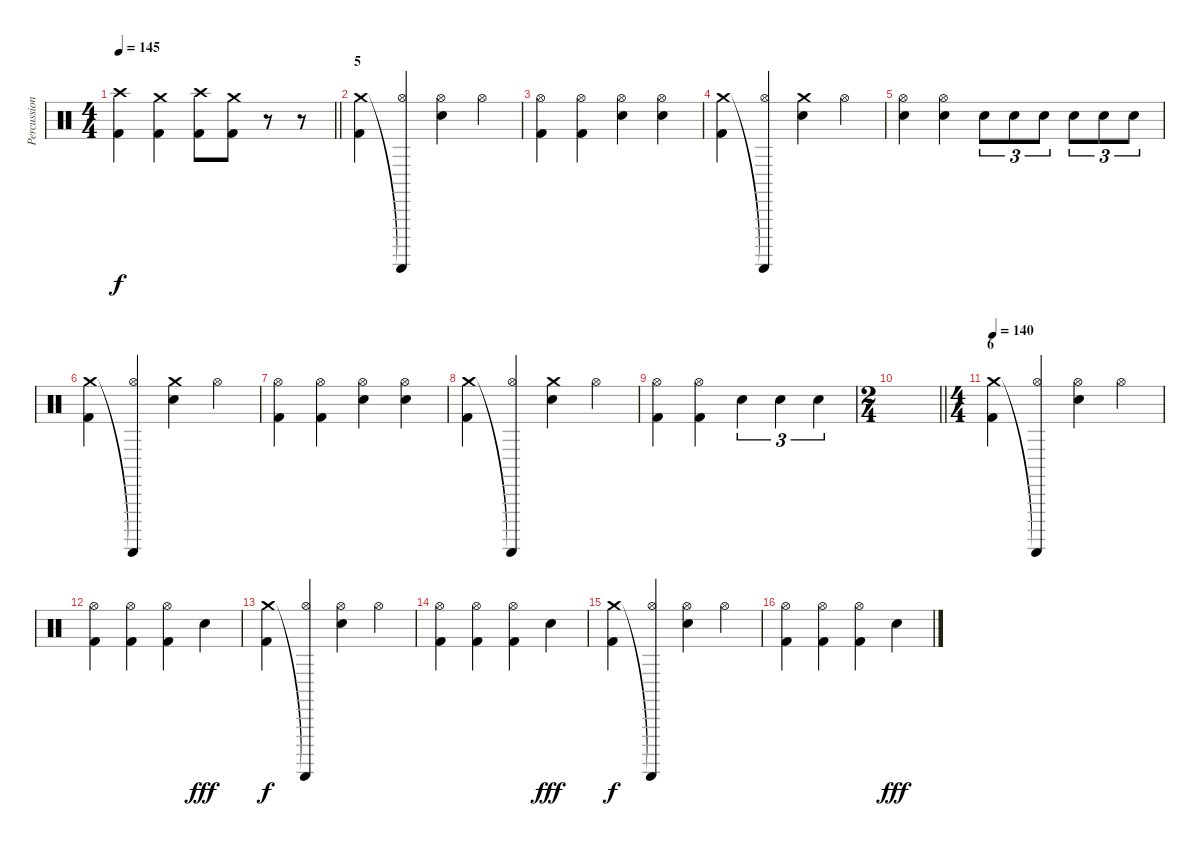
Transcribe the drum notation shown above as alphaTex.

\track ("Percussion" "Percussion") {instrument percussion}
\staff {score}
\articulation defaults
\ts (4 4)
\tempo 145
\clef neutral
\barLineRight lightlight
\ks c
("Kick (hit) 2" "Crash high (hit)").4{dy f} ("Kick (hit) 2" "Crash medium (hit)").4 ("Kick (hit) 2" "Crash high (hit)").8 ("Kick (hit) 2" "Crash medium (hit)").8 r.8 r.8 |
\section ("" "5 ")
("Crash medium (hit)" "Kick (hit) 2").4 ("Guiro (scrap-return)"{t} "Hi-Hat (open)").4 ("Hi-Hat (open)" "Electric Snare (hit)").4 "Hi-Hat (open)".4 |
("Hi-Hat (open)" "Kick (hit) 2").4 ("Hi-Hat (open)" "Kick (hit) 2").4 ("Hi-Hat (open)" "Electric Snare (hit)").4 ("Hi-Hat (open)" "Electric Snare (hit)").4 |
("Crash medium (hit)" "Kick (hit) 2").4 ("Guiro (scrap-return)"{t} "Hi-Hat (open)").4 ("Crash medium (hit)" "Electric Snare (hit)").4 "Hi-Hat (open)".4 |
("Hi-Hat (open)" "Electric Snare (hit)").4 ("Hi-Hat (open)" "Electric Snare (hit)").4 "Electric Snare (hit)".8{tu (3 2)} "Electric Snare (hit)".8{tu (3 2)} "Electric Snare (hit)".8{tu (3 2)} "Electric Snare (hit)".8{tu (3 2)} "Electric Snare (hit)".8{tu (3 2)} "Electric Snare (hit)".8{tu (3 2)} |
("Crash medium (hit)" "Kick (hit) 2").4 ("Guiro (scrap-return)"{t} "Hi-Hat (open)").4 ("Crash medium (hit)" "Electric Snare (hit)").4 "Hi-Hat (open)".4 |
("Hi-Hat (open)" "Kick (hit) 2").4 ("Hi-Hat (open)" "Kick (hit) 2").4 ("Hi-Hat (open)" "Electric Snare (hit)").4 ("Hi-Hat (open)" "Electric Snare (hit)").4 |
("Crash medium (hit)" "Kick (hit) 2").4 ("Guiro (scrap-return)"{t} "Hi-Hat (open)").4 ("Crash medium (hit)" "Electric Snare (hit)").4 "Hi-Hat (open)".4 |
("Hi-Hat (open)" "Kick (hit) 2").4 ("Hi-Hat (open)" "Kick (hit) 2").4 "Electric Snare (hit)".4{tu (3 2)} "Electric Snare (hit)".4{tu (3 2)} "Electric Snare (hit)".4{tu (3 2)} |
\ts (2 4)
\barLineRight lightlight
|
\ts (4 4)
\section ("" "6")
\tempo 140
("Crash medium (hit)" "Kick (hit) 2").4 ("Guiro (scrap-return)"{t} "Hi-Hat (open)").4 ("Hi-Hat (open)" "Electric Snare (hit)").4 "Hi-Hat (open)".4 |
("Hi-Hat (open)" "Kick (hit) 2").4 ("Hi-Hat (open)" "Kick (hit) 2").4 ("Hi-Hat (open)" "Kick (hit) 2").4 "Electric Snare (hit)".4{dy fff} |
("Crash medium (hit)" "Kick (hit) 2").4{dy f} ("Guiro (scrap-return)"{t} "Hi-Hat (open)").4 ("Hi-Hat (open)" "Electric Snare (hit)").4 "Hi-Hat (open)".4 |
("Hi-Hat (open)" "Kick (hit) 2").4 ("Hi-Hat (open)" "Kick (hit) 2").4 ("Hi-Hat (open)" "Kick (hit) 2").4 "Electric Snare (hit)".4{dy fff} |
("Crash medium (hit)" "Kick (hit) 2").4{dy f} ("Guiro (scrap-return)"{t} "Hi-Hat (open)").4 ("Hi-Hat (open)" "Electric Snare (hit)").4 "Hi-Hat (open)".4 |
("Hi-Hat (open)" "Kick (hit) 2").4 ("Hi-Hat (open)" "Kick (hit) 2").4 ("Hi-Hat (open)" "Kick (hit) 2").4 "Electric Snare (hit)".4{dy fff}
